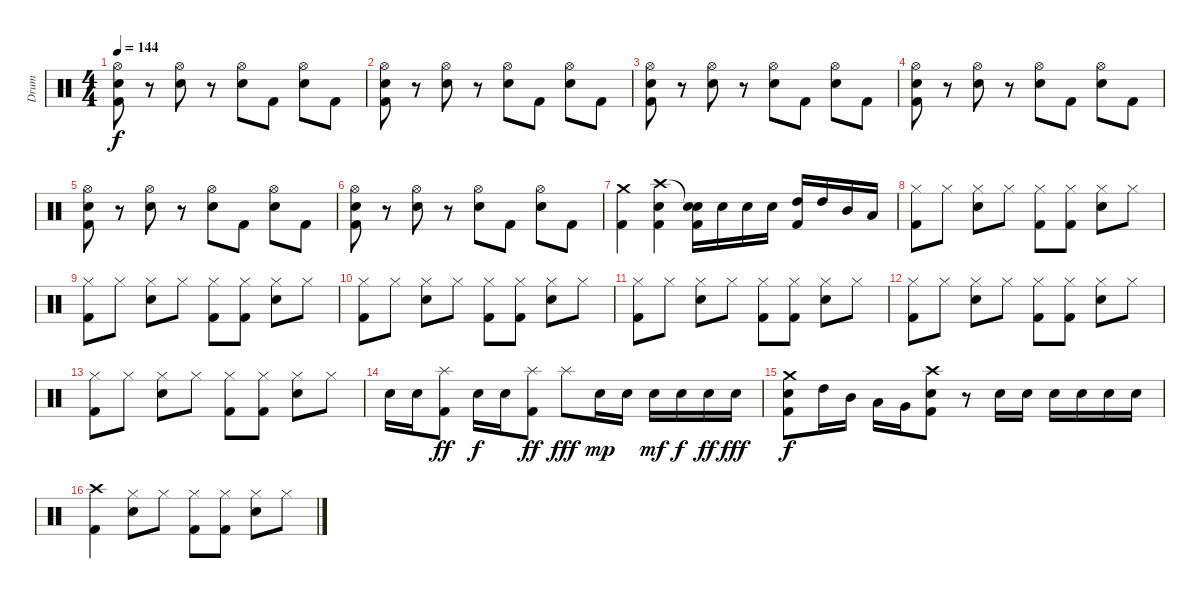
\track ("Drum" "Drum") {instrument percussion}
\staff {score}
\articulation defaults
\ts (4 4)
\tempo 144
\clef neutral
\ks c
("Hi-Hat (open)" "Electric Snare (hit)" "Kick (hit) 2").8{dy f} r.8 ("Hi-Hat (open)" "Electric Snare (hit)").8 r.8 ("Hi-Hat (open)" "Electric Snare (hit)").8 "Kick (hit) 2".8 ("Hi-Hat (open)" "Electric Snare (hit)").8 "Kick (hit) 2".8 |
("Hi-Hat (open)" "Electric Snare (hit)" "Kick (hit) 2").8 r.8 ("Hi-Hat (open)" "Electric Snare (hit)").8 r.8 ("Hi-Hat (open)" "Electric Snare (hit)").8 "Kick (hit) 2".8 ("Hi-Hat (open)" "Electric Snare (hit)").8 "Kick (hit) 2".8 |
("Hi-Hat (open)" "Electric Snare (hit)" "Kick (hit) 2").8 r.8 ("Hi-Hat (open)" "Electric Snare (hit)").8 r.8 ("Hi-Hat (open)" "Electric Snare (hit)").8 "Kick (hit) 2".8 ("Hi-Hat (open)" "Electric Snare (hit)").8 "Kick (hit) 2".8 |
("Hi-Hat (open)" "Electric Snare (hit)" "Kick (hit) 2").8 r.8 ("Hi-Hat (open)" "Electric Snare (hit)").8 r.8 ("Hi-Hat (open)" "Electric Snare (hit)").8 "Kick (hit) 2".8 ("Hi-Hat (open)" "Electric Snare (hit)").8 "Kick (hit) 2".8 |
("Hi-Hat (open)" "Electric Snare (hit)" "Kick (hit) 2").8 r.8 ("Hi-Hat (open)" "Electric Snare (hit)").8 r.8 ("Hi-Hat (open)" "Electric Snare (hit)").8 "Kick (hit) 2".8 ("Hi-Hat (open)" "Electric Snare (hit)").8 "Kick (hit) 2".8 |
("Hi-Hat (open)" "Electric Snare (hit)" "Kick (hit) 2").8 r.8 ("Hi-Hat (open)" "Electric Snare (hit)").8 r.8 ("Hi-Hat (open)" "Electric Snare (hit)").8 "Kick (hit) 2".8 ("Hi-Hat (open)" "Electric Snare (hit)").8 "Kick (hit) 2".8 |
("Crash medium (hit)" "Kick (hit) 2").4 ("Crash high (hit)" "Electric Snare (hit)" "Kick (hit) 2").4 ("Snare (hit)"{t} "Electric Snare (hit)" "Kick (hit) 2").16 "Electric Snare (hit)".16 "Electric Snare (hit)".16 "Electric Snare (hit)".16 ("High Tom (hit)" "Kick (hit) 2").16 "High Tom (hit)".16 "Mid Tom (hit)".16 "Low Tom (hit)".16 |
("Hi-Hat (closed)" "Kick (hit) 2").8 "Hi-Hat (closed)".8 ("Hi-Hat (closed)" "Electric Snare (hit)").8 "Hi-Hat (closed)".8 ("Hi-Hat (closed)" "Kick (hit) 2").8 ("Hi-Hat (closed)" "Kick (hit) 2").8 ("Hi-Hat (closed)" "Electric Snare (hit)").8 "Hi-Hat (closed)".8 |
("Hi-Hat (closed)" "Kick (hit) 2").8 "Hi-Hat (closed)".8 ("Hi-Hat (closed)" "Electric Snare (hit)").8 "Hi-Hat (closed)".8 ("Hi-Hat (closed)" "Kick (hit) 2").8 ("Hi-Hat (closed)" "Kick (hit) 2").8 ("Hi-Hat (closed)" "Electric Snare (hit)").8 "Hi-Hat (closed)".8 |
("Hi-Hat (closed)" "Kick (hit) 2").8 "Hi-Hat (closed)".8 ("Hi-Hat (closed)" "Electric Snare (hit)").8 "Hi-Hat (closed)".8 ("Hi-Hat (closed)" "Kick (hit) 2").8 ("Hi-Hat (closed)" "Kick (hit) 2").8 ("Hi-Hat (closed)" "Electric Snare (hit)").8 "Hi-Hat (closed)".8 |
("Hi-Hat (closed)" "Kick (hit) 2").8 "Hi-Hat (closed)".8 ("Hi-Hat (closed)" "Electric Snare (hit)").8 "Hi-Hat (closed)".8 ("Hi-Hat (closed)" "Kick (hit) 2").8 ("Hi-Hat (closed)" "Kick (hit) 2").8 ("Hi-Hat (closed)" "Electric Snare (hit)").8 "Hi-Hat (closed)".8 |
("Hi-Hat (closed)" "Kick (hit) 2").8 "Hi-Hat (closed)".8 ("Hi-Hat (closed)" "Electric Snare (hit)").8 "Hi-Hat (closed)".8 ("Hi-Hat (closed)" "Kick (hit) 2").8 ("Hi-Hat (closed)" "Kick (hit) 2").8 ("Hi-Hat (closed)" "Electric Snare (hit)").8 "Hi-Hat (closed)".8 |
("Hi-Hat (closed)" "Kick (hit) 2").8 "Hi-Hat (closed)".8 ("Hi-Hat (closed)" "Electric Snare (hit)").8 "Hi-Hat (closed)".8 ("Hi-Hat (closed)" "Kick (hit) 2").8 ("Hi-Hat (closed)" "Kick (hit) 2").8 ("Hi-Hat (closed)" "Electric Snare (hit)").8 "Hi-Hat (closed)".8 |
"Electric Snare (hit)".16 "Electric Snare (hit)".16 ("Splash (hit)" "Kick (hit) 2").8{dy ff} "Electric Snare (hit)".16{dy f} "Electric Snare (hit)".16 ("Splash (hit)" "Kick (hit) 2").8{dy ff} "Splash (hit)".8{dy fff} "Electric Snare (hit)".16{dy mp} "Electric Snare (hit)".16 "Electric Snare (hit)".16{dy mf} "Electric Snare (hit)".16{dy f} "Electric Snare (hit)".16{dy ff} "Electric Snare (hit)".16{dy fff} |
("Crash medium (hit)" "Electric Snare (hit)" "Kick (hit) 2").8{dy f} "High Tom (hit)".16 "Mid Tom (hit)".16 "Low Tom (hit)".16 "Very Low Tom (hit)".16 ("Crash high (hit)" "Electric Snare (hit)" "Kick (hit) 2").8 r.8 "Electric Snare (hit)".16 "Electric Snare (hit)".16 "Electric Snare (hit)".16 "Electric Snare (hit)".16 "Electric Snare (hit)".16 "Electric Snare (hit)".16 |
("Crash high (hit)" "Kick (hit) 2").4 ("Hi-Hat (closed)" "Electric Snare (hit)").8 "Hi-Hat (closed)".8 ("Hi-Hat (closed)" "Kick (hit) 2").8 ("Hi-Hat (closed)" "Kick (hit) 2").8 ("Hi-Hat (closed)" "Electric Snare (hit)").8 "Hi-Hat (closed)".8
